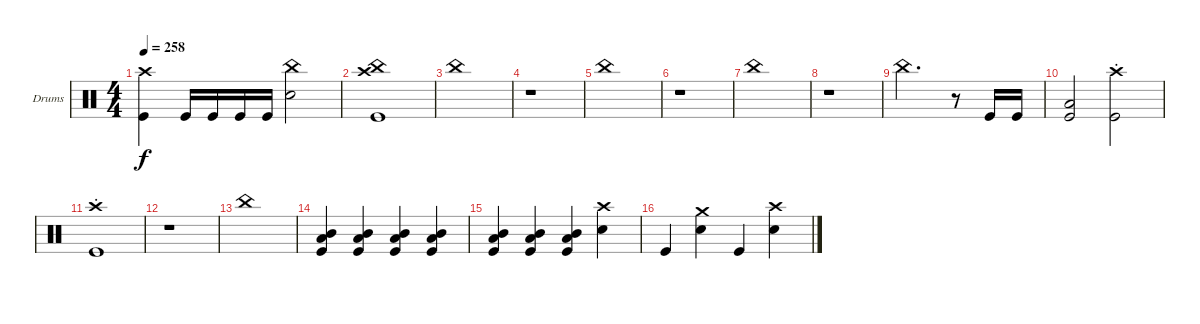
\defaultSystemsLayout 4
\bracketExtendMode groupsimilarinstruments
\firstSystemTrackNameOrientation horizontal
\otherSystemsTrackNameOrientation horizontal
\track ("Drumkit" "Drums") {instrument percussion}
\staff {score}
\articulation defaults
\ts (4 4)
\tempo 258
\clef neutral
\ks c
("Kick (hit)" "Crash high (hit)").4{dy f} "Kick (hit)".16 "Kick (hit)".16 "Kick (hit)".16 "Kick (hit)".16 ("Snare (hit) 2" "China (hit)").2 |
("Crash high (hit)" "China (hit)" "Kick (hit)").1 |
"China (hit)".1 |
r.1 |
"China (hit)".1 |
r.1 |
"China (hit)".1 |
r.1 |
"China (hit)".2{d} r.8 "Kick (hit)".16 "Kick (hit)".16 |
("Kick (hit)" "Low Tom (hit)").2 ("Crash high (hit)"{st} "Kick (hit)").2 |
("Crash high (hit)"{st} "Kick (hit)").1 |
r.1 |
"China (hit)".1 |
("Mid Tom (hit)" "Low Tom (hit)" "Kick (hit)").4 ("Low Tom (hit)" "Mid Tom (hit)" "Kick (hit)").4 ("Mid Tom (hit)" "Low Tom (hit)" "Kick (hit)").4 ("Low Tom (hit)" "Mid Tom (hit)" "Kick (hit)").4 |
("Kick (hit)" "Low Tom (hit)" "Mid Tom (hit)").4 ("Kick (hit)" "Mid Tom (hit)" "Low Tom (hit)").4 ("Kick (hit)" "Low Tom (hit)" "Mid Tom (hit)").4 ("Snare (hit) 2" "Crash high (hit)").4 |
"Kick (hit)".4 ("Snare (hit) 2" "Crash medium (hit)").4 "Kick (hit)".4 ("Snare (hit) 2" "Crash high (hit)").4
